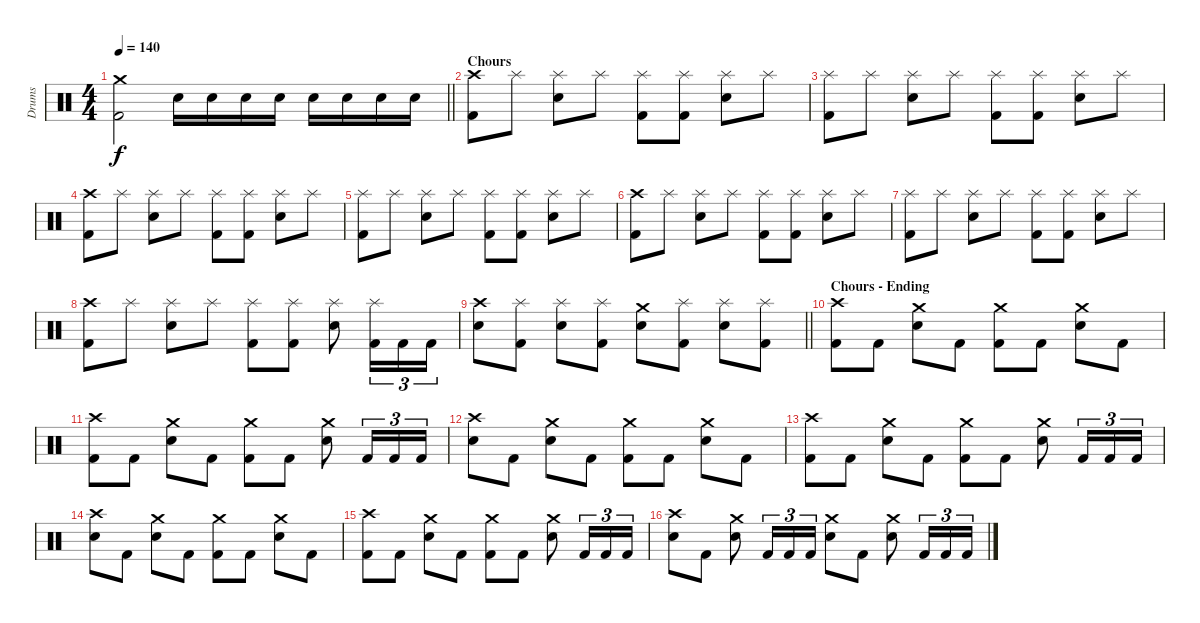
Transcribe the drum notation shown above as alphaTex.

\track ("Drums" "Drums") {instrument percussion}
\staff {score}
\articulation defaults
\ts (4 4)
\tempo 140
\clef neutral
\barLineRight lightlight
\ks c
("Crash medium (hit)" "Kick (hit) 2").2{dy f} "Snare (hit) 2".16 "Snare (hit) 2".16 "Snare (hit) 2".16 "Snare (hit) 2".16 "Snare (hit) 2".16 "Snare (hit) 2".16 "Snare (hit) 2".16 "Snare (hit) 2".16 |
\section ("" "Chours")
("Crash high (hit)" "Kick (hit) 2").8 "Splash (hit)".8 ("Splash (hit)" "Snare (hit) 2").8 "Splash (hit)".8 ("Splash (hit)" "Kick (hit) 2").8 ("Splash (hit)" "Kick (hit) 2").8 ("Splash (hit)" "Snare (hit) 2").8 "Splash (hit)".8 |
("Splash (hit)" "Kick (hit) 2").8 "Splash (hit)".8 ("Splash (hit)" "Snare (hit) 2").8 "Splash (hit)".8 ("Splash (hit)" "Kick (hit) 2").8 ("Splash (hit)" "Kick (hit) 2").8 ("Splash (hit)" "Snare (hit) 2").8 "Splash (hit)".8 |
("Crash high (hit)" "Kick (hit) 2").8 "Splash (hit)".8 ("Splash (hit)" "Snare (hit) 2").8 "Splash (hit)".8 ("Splash (hit)" "Kick (hit) 2").8 ("Splash (hit)" "Kick (hit) 2").8 ("Splash (hit)" "Snare (hit) 2").8 "Splash (hit)".8 |
("Splash (hit)" "Kick (hit) 2").8 "Splash (hit)".8 ("Splash (hit)" "Snare (hit) 2").8 "Splash (hit)".8 ("Splash (hit)" "Kick (hit) 2").8 ("Splash (hit)" "Kick (hit) 2").8 ("Splash (hit)" "Snare (hit) 2").8 "Splash (hit)".8 |
("Crash high (hit)" "Kick (hit) 2").8 "Splash (hit)".8 ("Splash (hit)" "Snare (hit) 2").8 "Splash (hit)".8 ("Splash (hit)" "Kick (hit) 2").8 ("Splash (hit)" "Kick (hit) 2").8 ("Splash (hit)" "Snare (hit) 2").8 "Splash (hit)".8 |
("Splash (hit)" "Kick (hit) 2").8 "Splash (hit)".8 ("Splash (hit)" "Snare (hit) 2").8 "Splash (hit)".8 ("Splash (hit)" "Kick (hit) 2").8 ("Splash (hit)" "Kick (hit) 2").8 ("Splash (hit)" "Snare (hit) 2").8 "Splash (hit)".8 |
("Crash high (hit)" "Kick (hit) 2").8 "Splash (hit)".8 ("Splash (hit)" "Snare (hit) 2").8 "Splash (hit)".8 ("Splash (hit)" "Kick (hit) 2").8 ("Splash (hit)" "Kick (hit) 2").8 ("Splash (hit)" "Snare (hit) 2").8 ("Splash (hit)" "Kick (hit) 2").16{tu (3 2)} "Kick (hit) 2".16{tu (3 2)} "Kick (hit) 2".16{tu (3 2)} |
\barLineRight lightlight
("Crash high (hit)" "Snare (hit) 2").8 ("Splash (hit)" "Kick (hit) 2").8 ("Splash (hit)" "Snare (hit) 2").8 ("Splash (hit)" "Kick (hit) 2").8 ("Crash medium (hit)" "Snare (hit) 2").8 ("Splash (hit)" "Kick (hit) 2").8 ("Splash (hit)" "Snare (hit) 2").8 ("Splash (hit)" "Kick (hit) 2").8 |
\section ("" "Chours - Ending")
("Crash high (hit)" "Kick (hit) 2").8 "Kick (hit) 2".8 ("Crash medium (hit)" "Snare (hit) 2").8 "Kick (hit) 2".8 ("Crash medium (hit)" "Kick (hit) 2").8 "Kick (hit) 2".8 ("Crash medium (hit)" "Snare (hit) 2").8 "Kick (hit) 2".8 |
("Crash high (hit)" "Kick (hit) 2").8 "Kick (hit) 2".8 ("Crash medium (hit)" "Snare (hit) 2").8 "Kick (hit) 2".8 ("Crash medium (hit)" "Kick (hit) 2").8 "Kick (hit) 2".8 ("Crash medium (hit)" "Snare (hit) 2").8 "Kick (hit) 2".16{tu (3 2)} "Kick (hit) 2".16{tu (3 2)} "Kick (hit) 2".16{tu (3 2)} |
("Crash high (hit)" "Snare (hit) 2").8 "Kick (hit) 2".8 ("Crash medium (hit)" "Snare (hit) 2").8 "Kick (hit) 2".8 ("Crash medium (hit)" "Kick (hit) 2").8 "Kick (hit) 2".8 ("Crash medium (hit)" "Snare (hit) 2").8 "Kick (hit) 2".8 |
("Crash high (hit)" "Kick (hit) 2").8 "Kick (hit) 2".8 ("Crash medium (hit)" "Snare (hit) 2").8 "Kick (hit) 2".8 ("Crash medium (hit)" "Kick (hit) 2").8 "Kick (hit) 2".8 ("Crash medium (hit)" "Snare (hit) 2").8 "Kick (hit) 2".16{tu (3 2)} "Kick (hit) 2".16{tu (3 2)} "Kick (hit) 2".16{tu (3 2)} |
("Crash high (hit)" "Snare (hit) 2").8 "Kick (hit) 2".8 ("Crash medium (hit)" "Snare (hit) 2").8 "Kick (hit) 2".8 ("Crash medium (hit)" "Kick (hit) 2").8 "Kick (hit) 2".8 ("Crash medium (hit)" "Snare (hit) 2").8 "Kick (hit) 2".8 |
("Crash high (hit)" "Kick (hit) 2").8 "Kick (hit) 2".8 ("Crash medium (hit)" "Snare (hit) 2").8 "Kick (hit) 2".8 ("Crash medium (hit)" "Kick (hit) 2").8 "Kick (hit) 2".8 ("Crash medium (hit)" "Snare (hit) 2").8 "Kick (hit) 2".16{tu (3 2)} "Kick (hit) 2".16{tu (3 2)} "Kick (hit) 2".16{tu (3 2)} |
("Crash high (hit)" "Snare (hit) 2").8 "Kick (hit) 2".8 ("Crash medium (hit)" "Snare (hit) 2").8 "Kick (hit) 2".16{tu (3 2)} "Kick (hit) 2".16{tu (3 2)} "Kick (hit) 2".16{tu (3 2)} ("Crash medium (hit)" "Snare (hit) 2").8 "Kick (hit) 2".8 ("Crash medium (hit)" "Snare (hit) 2").8 "Kick (hit) 2".16{tu (3 2)} "Kick (hit) 2".16{tu (3 2)} "Kick (hit) 2".16{tu (3 2)}
